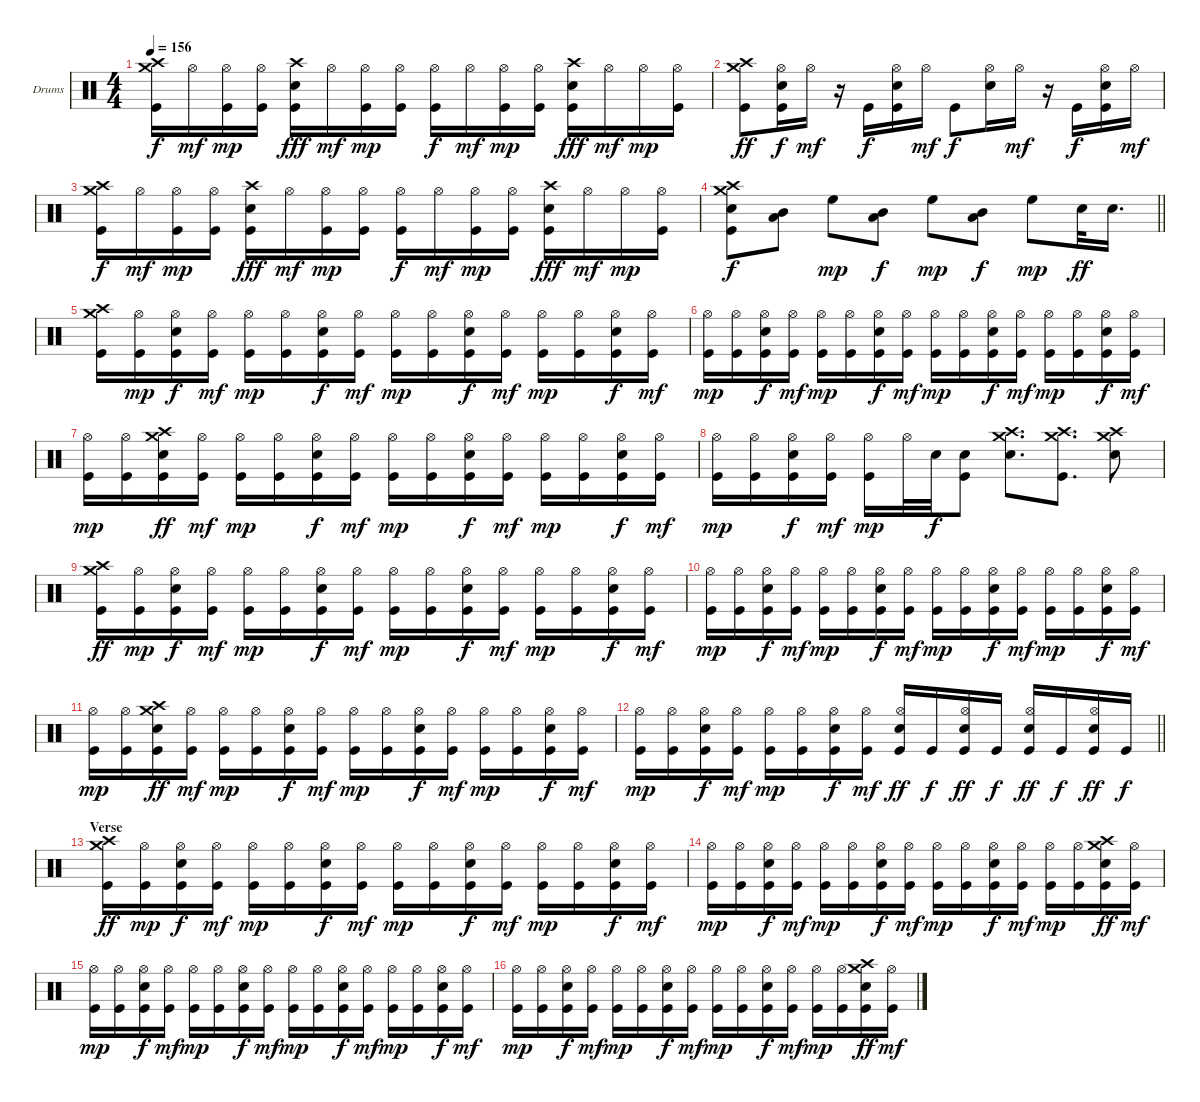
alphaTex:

\bracketExtendMode groupsimilarinstruments
\firstSystemTrackNameOrientation horizontal
\otherSystemsTrackNameOrientation horizontal
\track ("Drums" "Drums") {instrument percussion}
\staff {score}
\articulation defaults
\ts (4 4)
\tempo 156
\clef neutral
\ks c
("Crash medium (hit)" "Crash high (hit)" "Kick (hit)").16{dy f} "Hi-Hat (open)".16{dy mf} ("Hi-Hat (open)" "Kick (hit)").16{dy mp} ("Hi-Hat (open)" "Kick (hit)").16 ("Crash high (hit)" "Snare (hit) 2" "Kick (hit)").16{dy fff} "Hi-Hat (open)".16{dy mf} ("Hi-Hat (open)" "Kick (hit)").16{dy mp} ("Hi-Hat (open)" "Kick (hit)").16 ("Hi-Hat (open)" "Kick (hit)").16{dy f} "Hi-Hat (open)".16{dy mf} ("Hi-Hat (open)" "Kick (hit)").16{dy mp} ("Hi-Hat (open)" "Kick (hit)").16 ("Crash high (hit)" "Snare (hit) 2" "Kick (hit)").16{dy fff} "Hi-Hat (open)".16{dy mf} "Hi-Hat (open)".16{dy mp} ("Hi-Hat (open)" "Kick (hit)").16 |
("Crash medium (hit)" "Crash high (hit)" "Kick (hit)").8{dy ff} ("Hi-Hat (open)" "Snare (hit) 2" "Kick (hit)").16{dy f} "Hi-Hat (open)".16{dy mf} r.16 "Kick (hit)".16{dy f} ("Hi-Hat (open)" "Snare (hit) 2" "Kick (hit)").16 "Hi-Hat (open)".16{dy mf} "Kick (hit)".8{dy f} ("Hi-Hat (open)" "Snare (hit) 2").16 "Hi-Hat (open)".16{dy mf} r.16 "Kick (hit)".16{dy f} ("Hi-Hat (open)" "Snare (hit) 2" "Kick (hit)").16 "Hi-Hat (open)".16{dy mf} |
("Crash medium (hit)" "Crash high (hit)" "Kick (hit)").16{dy f} "Hi-Hat (open)".16{dy mf} ("Hi-Hat (open)" "Kick (hit)").16{dy mp} ("Hi-Hat (open)" "Kick (hit)").16 ("Crash high (hit)" "Snare (hit) 2" "Kick (hit)").16{dy fff} "Hi-Hat (open)".16{dy mf} ("Hi-Hat (open)" "Kick (hit)").16{dy mp} ("Hi-Hat (open)" "Kick (hit)").16 ("Hi-Hat (open)" "Kick (hit)").16{dy f} "Hi-Hat (open)".16{dy mf} ("Hi-Hat (open)" "Kick (hit)").16{dy mp} ("Hi-Hat (open)" "Kick (hit)").16 ("Crash high (hit)" "Snare (hit) 2" "Kick (hit)").16{dy fff} "Hi-Hat (open)".16{dy mf} "Hi-Hat (open)".16{dy mp} ("Hi-Hat (open)" "Kick (hit)").16 |
\barLineRight lightlight
("Crash medium (hit)" "Crash high (hit)" "Snare (hit) 2" "Kick (hit)").8{dy f} ("Mid Tom (hit)" "Low Tom (hit)").8 "High Floor Tom (hit)".8{dy mp} ("Mid Tom (hit)" "Low Tom (hit)").8{dy f} "High Floor Tom (hit)".8{dy mp} ("Mid Tom (hit)" "Low Tom (hit)").8{dy f} "High Floor Tom (hit)".8{dy mp} "Snare (hit) 2".32{dy ff} "Snare (hit) 2".16{d} |
("Crash medium (hit)" "Crash high (hit)" "Kick (hit)").16 ("Hi-Hat (open)" "Kick (hit)").16{dy mp} ("Hi-Hat (open)" "Snare (hit) 2" "Kick (hit)").16{dy f} ("Hi-Hat (open)" "Kick (hit)").16{dy mf} ("Hi-Hat (open)" "Kick (hit)").16{dy mp} ("Hi-Hat (open)" "Kick (hit)").16 ("Hi-Hat (open)" "Snare (hit) 2" "Kick (hit)").16{dy f} ("Hi-Hat (open)" "Kick (hit)").16{dy mf} ("Hi-Hat (open)" "Kick (hit)").16{dy mp} ("Hi-Hat (open)" "Kick (hit)").16 ("Hi-Hat (open)" "Snare (hit) 2" "Kick (hit)").16{dy f} ("Hi-Hat (open)" "Kick (hit)").16{dy mf} ("Hi-Hat (open)" "Kick (hit)").16{dy mp} ("Hi-Hat (open)" "Kick (hit)").16 ("Hi-Hat (open)" "Snare (hit) 2" "Kick (hit)").16{dy f} ("Hi-Hat (open)" "Kick (hit)").16{dy mf} |
("Hi-Hat (open)" "Kick (hit)").16{dy mp} ("Hi-Hat (open)" "Kick (hit)").16 ("Hi-Hat (open)" "Snare (hit) 2" "Kick (hit)").16{dy f} ("Hi-Hat (open)" "Kick (hit)").16{dy mf} ("Hi-Hat (open)" "Kick (hit)").16{dy mp} ("Hi-Hat (open)" "Kick (hit)").16 ("Hi-Hat (open)" "Snare (hit) 2" "Kick (hit)").16{dy f} ("Hi-Hat (open)" "Kick (hit)").16{dy mf} ("Hi-Hat (open)" "Kick (hit)").16{dy mp} ("Hi-Hat (open)" "Kick (hit)").16 ("Hi-Hat (open)" "Snare (hit) 2" "Kick (hit)").16{dy f} ("Hi-Hat (open)" "Kick (hit)").16{dy mf} ("Hi-Hat (open)" "Kick (hit)").16{dy mp} ("Hi-Hat (open)" "Kick (hit)").16 ("Hi-Hat (open)" "Snare (hit) 2" "Kick (hit)").16{dy f} ("Hi-Hat (open)" "Kick (hit)").16{dy mf} |
("Hi-Hat (open)" "Kick (hit)").16{dy mp} ("Hi-Hat (open)" "Kick (hit)").16 ("Crash medium (hit)" "Crash high (hit)" "Snare (hit) 2" "Kick (hit)").16{dy ff} ("Hi-Hat (open)" "Kick (hit)").16{dy mf} ("Hi-Hat (open)" "Kick (hit)").16{dy mp} ("Hi-Hat (open)" "Kick (hit)").16 ("Hi-Hat (open)" "Snare (hit) 2" "Kick (hit)").16{dy f} ("Hi-Hat (open)" "Kick (hit)").16{dy mf} ("Hi-Hat (open)" "Kick (hit)").16{dy mp} ("Hi-Hat (open)" "Kick (hit)").16 ("Hi-Hat (open)" "Snare (hit) 2" "Kick (hit)").16{dy f} ("Hi-Hat (open)" "Kick (hit)").16{dy mf} ("Hi-Hat (open)" "Kick (hit)").16{dy mp} ("Hi-Hat (open)" "Kick (hit)").16 ("Hi-Hat (open)" "Snare (hit) 2" "Kick (hit)").16{dy f} ("Hi-Hat (open)" "Kick (hit)").16{dy mf} |
("Hi-Hat (open)" "Kick (hit)").16{dy mp} ("Hi-Hat (open)" "Kick (hit)").16 ("Hi-Hat (open)" "Snare (hit) 2" "Kick (hit)").16{dy f} ("Hi-Hat (open)" "Kick (hit)").16{dy mf} ("Hi-Hat (open)" "Kick (hit)").16{dy mp} "Hi-Hat (open)".32 "Snare (hit) 2".32{dy f} ("Snare (hit) 2" "Kick (hit)").8 ("Crash medium (hit)" "Crash high (hit)" "Snare (hit) 2").8{d} ("Crash medium (hit)" "Crash high (hit)" "Kick (hit)").8{d} ("Crash medium (hit)" "Crash high (hit)" "Snare (hit) 2").8 |
("Crash medium (hit)" "Crash high (hit)" "Kick (hit)").16{dy ff} ("Hi-Hat (open)" "Kick (hit)").16{dy mp} ("Hi-Hat (open)" "Snare (hit) 2" "Kick (hit)").16{dy f} ("Hi-Hat (open)" "Kick (hit)").16{dy mf} ("Hi-Hat (open)" "Kick (hit)").16{dy mp} ("Hi-Hat (open)" "Kick (hit)").16 ("Hi-Hat (open)" "Snare (hit) 2" "Kick (hit)").16{dy f} ("Hi-Hat (open)" "Kick (hit)").16{dy mf} ("Hi-Hat (open)" "Kick (hit)").16{dy mp} ("Hi-Hat (open)" "Kick (hit)").16 ("Hi-Hat (open)" "Snare (hit) 2" "Kick (hit)").16{dy f} ("Hi-Hat (open)" "Kick (hit)").16{dy mf} ("Hi-Hat (open)" "Kick (hit)").16{dy mp} ("Hi-Hat (open)" "Kick (hit)").16 ("Hi-Hat (open)" "Snare (hit) 2" "Kick (hit)").16{dy f} ("Hi-Hat (open)" "Kick (hit)").16{dy mf} |
("Hi-Hat (open)" "Kick (hit)").16{dy mp} ("Hi-Hat (open)" "Kick (hit)").16 ("Hi-Hat (open)" "Snare (hit) 2" "Kick (hit)").16{dy f} ("Hi-Hat (open)" "Kick (hit)").16{dy mf} ("Hi-Hat (open)" "Kick (hit)").16{dy mp} ("Hi-Hat (open)" "Kick (hit)").16 ("Hi-Hat (open)" "Snare (hit) 2" "Kick (hit)").16{dy f} ("Hi-Hat (open)" "Kick (hit)").16{dy mf} ("Hi-Hat (open)" "Kick (hit)").16{dy mp} ("Hi-Hat (open)" "Kick (hit)").16 ("Hi-Hat (open)" "Snare (hit) 2" "Kick (hit)").16{dy f} ("Hi-Hat (open)" "Kick (hit)").16{dy mf} ("Hi-Hat (open)" "Kick (hit)").16{dy mp} ("Hi-Hat (open)" "Kick (hit)").16 ("Hi-Hat (open)" "Snare (hit) 2" "Kick (hit)").16{dy f} ("Hi-Hat (open)" "Kick (hit)").16{dy mf} |
("Hi-Hat (open)" "Kick (hit)").16{dy mp} ("Hi-Hat (open)" "Kick (hit)").16 ("Crash medium (hit)" "Crash high (hit)" "Snare (hit) 2" "Kick (hit)").16{dy ff} ("Hi-Hat (open)" "Kick (hit)").16{dy mf} ("Hi-Hat (open)" "Kick (hit)").16{dy mp} ("Hi-Hat (open)" "Kick (hit)").16 ("Hi-Hat (open)" "Snare (hit) 2" "Kick (hit)").16{dy f} ("Hi-Hat (open)" "Kick (hit)").16{dy mf} ("Hi-Hat (open)" "Kick (hit)").16{dy mp} ("Hi-Hat (open)" "Kick (hit)").16 ("Hi-Hat (open)" "Snare (hit) 2" "Kick (hit)").16{dy f} ("Hi-Hat (open)" "Kick (hit)").16{dy mf} ("Hi-Hat (open)" "Kick (hit)").16{dy mp} ("Hi-Hat (open)" "Kick (hit)").16 ("Hi-Hat (open)" "Snare (hit) 2" "Kick (hit)").16{dy f} ("Hi-Hat (open)" "Kick (hit)").16{dy mf} |
\barLineRight lightlight
("Hi-Hat (open)" "Kick (hit)").16{dy mp} ("Hi-Hat (open)" "Kick (hit)").16 ("Hi-Hat (open)" "Snare (hit) 2" "Kick (hit)").16{dy f} ("Hi-Hat (open)" "Kick (hit)").16{dy mf} ("Hi-Hat (open)" "Kick (hit)").16{dy mp} ("Hi-Hat (open)" "Kick (hit)").16 ("Hi-Hat (open)" "Snare (hit) 2" "Kick (hit)").16{dy f} ("Hi-Hat (open)" "Kick (hit)").16{dy mf} ("Hi-Hat (open)" "Snare (hit) 2" "Kick (hit)").16{dy ff} "Kick (hit)".16{dy f} ("Hi-Hat (open)" "Snare (hit) 2" "Kick (hit)").16{dy ff} "Kick (hit)".16{dy f} ("Hi-Hat (open)" "Snare (hit) 2" "Kick (hit)").16{dy ff} "Kick (hit)".16{dy f} ("Hi-Hat (open)" "Snare (hit) 2" "Kick (hit)").16{dy ff} "Kick (hit)".16{dy f} |
\section ("" "Verse")
("Crash medium (hit)" "Crash high (hit)" "Kick (hit)").16{dy ff} ("Hi-Hat (open)" "Kick (hit)").16{dy mp} ("Hi-Hat (open)" "Snare (hit) 2" "Kick (hit)").16{dy f} ("Hi-Hat (open)" "Kick (hit)").16{dy mf} ("Hi-Hat (open)" "Kick (hit)").16{dy mp} ("Hi-Hat (open)" "Kick (hit)").16 ("Hi-Hat (open)" "Snare (hit) 2" "Kick (hit)").16{dy f} ("Hi-Hat (open)" "Kick (hit)").16{dy mf} ("Hi-Hat (open)" "Kick (hit)").16{dy mp} ("Hi-Hat (open)" "Kick (hit)").16 ("Hi-Hat (open)" "Snare (hit) 2" "Kick (hit)").16{dy f} ("Hi-Hat (open)" "Kick (hit)").16{dy mf} ("Hi-Hat (open)" "Kick (hit)").16{dy mp} ("Hi-Hat (open)" "Kick (hit)").16 ("Hi-Hat (open)" "Snare (hit) 2" "Kick (hit)").16{dy f} ("Hi-Hat (open)" "Kick (hit)").16{dy mf} |
("Hi-Hat (open)" "Kick (hit)").16{dy mp} ("Hi-Hat (open)" "Kick (hit)").16 ("Hi-Hat (open)" "Snare (hit) 2" "Kick (hit)").16{dy f} ("Hi-Hat (open)" "Kick (hit)").16{dy mf} ("Hi-Hat (open)" "Kick (hit)").16{dy mp} ("Hi-Hat (open)" "Kick (hit)").16 ("Hi-Hat (open)" "Snare (hit) 2" "Kick (hit)").16{dy f} ("Hi-Hat (open)" "Kick (hit)").16{dy mf} ("Hi-Hat (open)" "Kick (hit)").16{dy mp} ("Hi-Hat (open)" "Kick (hit)").16 ("Hi-Hat (open)" "Snare (hit) 2" "Kick (hit)").16{dy f} ("Hi-Hat (open)" "Kick (hit)").16{dy mf} ("Hi-Hat (open)" "Kick (hit)").16{dy mp} ("Hi-Hat (open)" "Kick (hit)").16 ("Crash medium (hit)" "Crash high (hit)" "Snare (hit) 2" "Kick (hit)").16{dy ff} ("Hi-Hat (open)" "Kick (hit)").16{dy mf} |
("Hi-Hat (open)" "Kick (hit)").16{dy mp} ("Hi-Hat (open)" "Kick (hit)").16 ("Hi-Hat (open)" "Snare (hit) 2" "Kick (hit)").16{dy f} ("Hi-Hat (open)" "Kick (hit)").16{dy mf} ("Hi-Hat (open)" "Kick (hit)").16{dy mp} ("Hi-Hat (open)" "Kick (hit)").16 ("Hi-Hat (open)" "Snare (hit) 2" "Kick (hit)").16{dy f} ("Hi-Hat (open)" "Kick (hit)").16{dy mf} ("Hi-Hat (open)" "Kick (hit)").16{dy mp} ("Hi-Hat (open)" "Kick (hit)").16 ("Hi-Hat (open)" "Snare (hit) 2" "Kick (hit)").16{dy f} ("Hi-Hat (open)" "Kick (hit)").16{dy mf} ("Hi-Hat (open)" "Kick (hit)").16{dy mp} ("Hi-Hat (open)" "Kick (hit)").16 ("Hi-Hat (open)" "Snare (hit) 2" "Kick (hit)").16{dy f} ("Hi-Hat (open)" "Kick (hit)").16{dy mf} |
("Hi-Hat (open)" "Kick (hit)").16{dy mp} ("Hi-Hat (open)" "Kick (hit)").16 ("Hi-Hat (open)" "Snare (hit) 2" "Kick (hit)").16{dy f} ("Hi-Hat (open)" "Kick (hit)").16{dy mf} ("Hi-Hat (open)" "Kick (hit)").16{dy mp} ("Hi-Hat (open)" "Kick (hit)").16 ("Hi-Hat (open)" "Snare (hit) 2" "Kick (hit)").16{dy f} ("Hi-Hat (open)" "Kick (hit)").16{dy mf} ("Hi-Hat (open)" "Kick (hit)").16{dy mp} ("Hi-Hat (open)" "Kick (hit)").16 ("Hi-Hat (open)" "Snare (hit) 2" "Kick (hit)").16{dy f} ("Hi-Hat (open)" "Kick (hit)").16{dy mf} ("Hi-Hat (open)" "Kick (hit)").16{dy mp} ("Hi-Hat (open)" "Kick (hit)").16 ("Crash medium (hit)" "Crash high (hit)" "Snare (hit) 2" "Kick (hit)").16{dy ff} ("Hi-Hat (open)" "Kick (hit)").16{dy mf}
